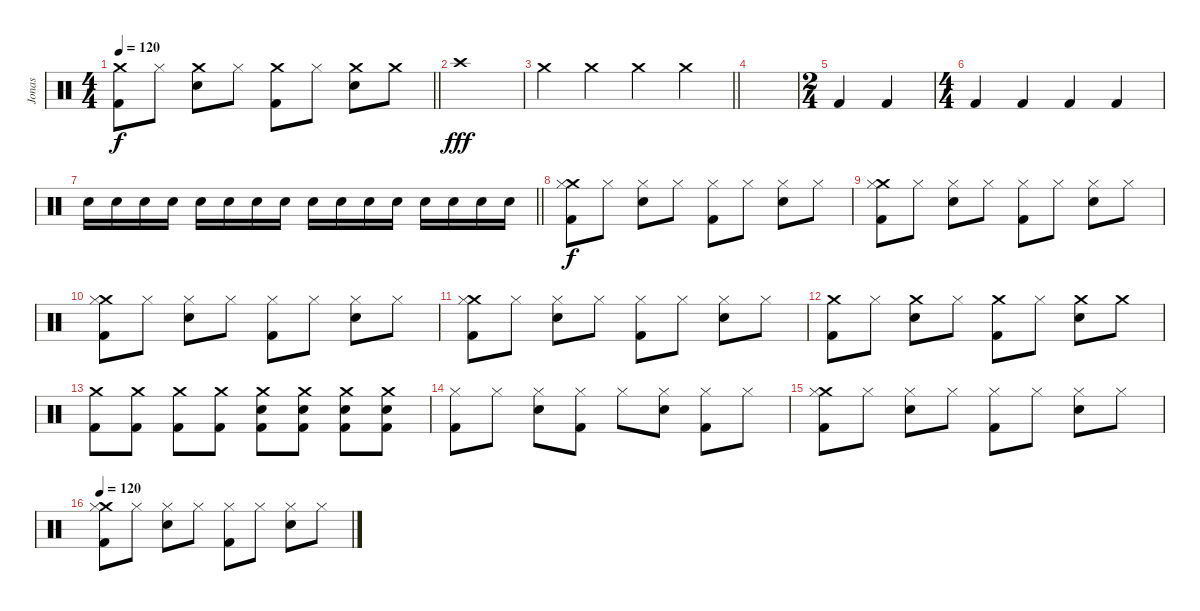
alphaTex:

\track ("Jonas" "Jonas") {instrument percussion}
\staff {score}
\articulation defaults
\ts (4 4)
\tempo 120
\clef neutral
\barLineRight lightlight
\ks c
("Crash medium (hit)" "Kick (hit) 2").8{dy f} "Hi-Hat (closed)".8 ("Crash medium (hit)" "Snare (hit) 2").8 "Hi-Hat (closed)".8 ("Crash medium (hit)" "Kick (hit) 2").8 "Hi-Hat (closed)".8 ("Crash medium (hit)" "Snare (hit) 2").8 "Crash medium (hit)".8 |
"Crash high (hit)".1{dy fff} |
\barLineRight lightlight "Crash medium (hit)".4 "Crash medium (hit)".4 "Crash medium (hit)".4 "Crash medium (hit)".4
|
|
\ts (2 4)
"Kick (hit) 2".4 "Kick (hit) 2".4 |
\ts (4 4)
"Kick (hit) 2".4 "Kick (hit) 2".4 "Kick (hit) 2".4 "Kick (hit) 2".4 |
\barLineRight lightlight "Snare (hit) 2".16 "Snare (hit) 2".16 "Snare (hit) 2".16 "Snare (hit) 2".16 "Snare (hit) 2".16 "Snare (hit) 2".16 "Snare (hit) 2".16 "Snare (hit) 2".16 "Snare (hit) 2".16 "Snare (hit) 2".16 "Snare (hit) 2".16 "Snare (hit) 2".16 "Snare (hit) 2".16 "Snare (hit) 2".16 "Snare (hit) 2".16 "Snare (hit) 2".16
|
("Crash medium (hit)" "Hi-Hat (closed)" "Kick (hit) 2").8{dy f} "Hi-Hat (closed)".8 ("Hi-Hat (closed)" "Snare (hit) 2").8 "Hi-Hat (closed)".8 ("Hi-Hat (closed)" "Kick (hit) 2").8 "Hi-Hat (closed)".8 ("Hi-Hat (closed)" "Snare (hit) 2").8 "Hi-Hat (closed)".8 |
("Crash medium (hit)" "Hi-Hat (closed)" "Kick (hit) 2").8 "Hi-Hat (closed)".8 ("Hi-Hat (closed)" "Snare (hit) 2").8 "Hi-Hat (closed)".8 ("Hi-Hat (closed)" "Kick (hit) 2").8 "Hi-Hat (closed)".8 ("Hi-Hat (closed)" "Snare (hit) 2").8 "Hi-Hat (closed)".8 |
("Crash medium (hit)" "Hi-Hat (closed)" "Kick (hit) 2").8 "Hi-Hat (closed)".8 ("Hi-Hat (closed)" "Snare (hit) 2").8 "Hi-Hat (closed)".8 ("Hi-Hat (closed)" "Kick (hit) 2").8 "Hi-Hat (closed)".8 ("Hi-Hat (closed)" "Snare (hit) 2").8 "Hi-Hat (closed)".8 |
("Crash medium (hit)" "Hi-Hat (closed)" "Kick (hit) 2").8 "Hi-Hat (closed)".8 ("Hi-Hat (closed)" "Snare (hit) 2").8 "Hi-Hat (closed)".8 ("Hi-Hat (closed)" "Kick (hit) 2").8 "Hi-Hat (closed)".8 ("Hi-Hat (closed)" "Snare (hit) 2").8 "Hi-Hat (closed)".8 |
("Crash medium (hit)" "Kick (hit) 2").8 "Hi-Hat (closed)".8 ("Crash medium (hit)" "Snare (hit) 2").8 "Hi-Hat (closed)".8 ("Crash medium (hit)" "Kick (hit) 2").8 "Hi-Hat (closed)".8 ("Crash medium (hit)" "Snare (hit) 2").8 "Crash medium (hit)".8 |
("Crash medium (hit)" "Kick (hit) 2").8 ("Crash medium (hit)" "Kick (hit) 2").8 ("Crash medium (hit)" "Kick (hit) 2").8 ("Crash medium (hit)" "Kick (hit) 2").8 ("Crash medium (hit)" "Snare (hit) 2" "Kick (hit) 2").8 ("Crash medium (hit)" "Snare (hit) 2" "Kick (hit) 2").8 ("Crash medium (hit)" "Snare (hit) 2" "Kick (hit) 2").8 ("Crash medium (hit)" "Snare (hit) 2" "Kick (hit) 2").8 |
("Hi-Hat (closed)" "Kick (hit) 2").8 "Hi-Hat (closed)".8 ("Hi-Hat (closed)" "Snare (hit) 2").8 ("Hi-Hat (closed)" "Kick (hit) 2").8 "Hi-Hat (closed)".8 ("Hi-Hat (closed)" "Snare (hit) 2").8 ("Hi-Hat (closed)" "Kick (hit) 2").8 "Hi-Hat (closed)".8 |
("Crash medium (hit)" "Hi-Hat (closed)" "Kick (hit) 2").8 "Hi-Hat (closed)".8 ("Hi-Hat (closed)" "Snare (hit) 2").8 "Hi-Hat (closed)".8 ("Hi-Hat (closed)" "Kick (hit) 2").8 "Hi-Hat (closed)".8 ("Hi-Hat (closed)" "Snare (hit) 2").8 "Hi-Hat (closed)".8 |
\tempo 120
("Crash medium (hit)" "Hi-Hat (closed)" "Kick (hit) 2").8 "Hi-Hat (closed)".8 ("Hi-Hat (closed)" "Snare (hit) 2").8 "Hi-Hat (closed)".8 ("Hi-Hat (closed)" "Kick (hit) 2").8 "Hi-Hat (closed)".8 ("Hi-Hat (closed)" "Snare (hit) 2").8 "Hi-Hat (closed)".8
